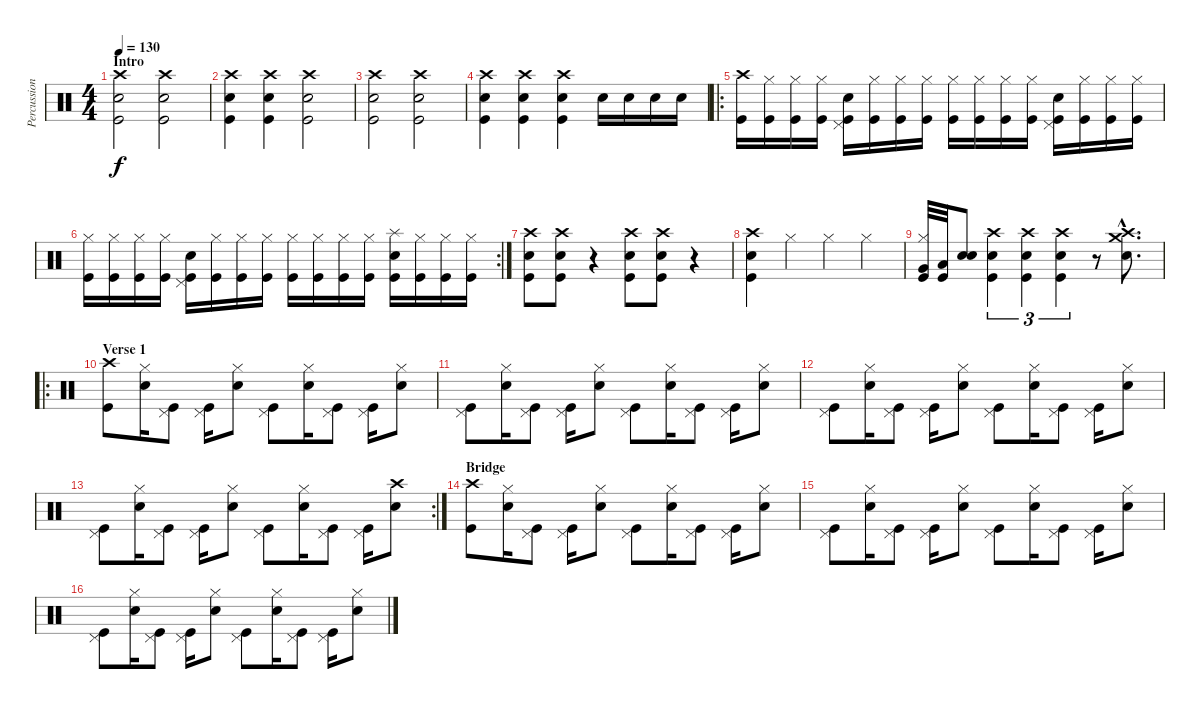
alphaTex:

\track ("Percussion" "Percussion") {instrument percussion}
\staff {score}
\articulation defaults
\ts (4 4)
\section ("" "Intro")
\tempo 130
\clef neutral
\ks c
("Crash high (hit)" "Snare (hit) 2" "Kick (hit)").2{dy f} ("Crash high (hit)" "Snare (hit) 2" "Kick (hit)").2 |
("Crash high (hit)" "Snare (hit) 2" "Kick (hit)").4 ("Crash high (hit)" "Snare (hit) 2" "Kick (hit)").4 ("Crash high (hit)" "Snare (hit) 2" "Kick (hit)").2 |
("Crash high (hit)" "Snare (hit) 2" "Kick (hit)").2 ("Crash high (hit)" "Snare (hit) 2" "Kick (hit)").2 |
("Crash high (hit)" "Snare (hit) 2" "Kick (hit)").4 ("Crash high (hit)" "Snare (hit) 2" "Kick (hit)").4 ("Crash high (hit)" "Snare (hit) 2" "Kick (hit)").4 "Snare (hit) 2".16 "Snare (hit) 2".16 "Snare (hit) 2".16 "Snare (hit) 2".16 |
\ro
("Crash high (hit)" "Kick (hit)").16 ("Hi-Hat (closed)" "Kick (hit)").16 ("Hi-Hat (closed)" "Kick (hit)").16 ("Hi-Hat (closed)" "Kick (hit)").16 ("Pedal Hi-Hat (hit)" "Snare (hit) 2" "Kick (hit)").16 ("Hi-Hat (closed)" "Kick (hit)").16 ("Hi-Hat (closed)" "Kick (hit)").16 ("Hi-Hat (closed)" "Kick (hit)").16 ("Hi-Hat (closed)" "Kick (hit)").16 ("Hi-Hat (closed)" "Kick (hit)").16 ("Hi-Hat (closed)" "Kick (hit)").16 ("Hi-Hat (closed)" "Kick (hit)").16 ("Pedal Hi-Hat (hit)" "Snare (hit) 2" "Kick (hit)").16 ("Hi-Hat (closed)" "Kick (hit)").16 ("Hi-Hat (closed)" "Kick (hit)").16 ("Hi-Hat (closed)" "Kick (hit)").16 |
\rc 2
("Hi-Hat (closed)" "Kick (hit)").16 ("Hi-Hat (closed)" "Kick (hit)").16 ("Hi-Hat (closed)" "Kick (hit)").16 ("Hi-Hat (closed)" "Kick (hit)").16 ("Pedal Hi-Hat (hit)" "Snare (hit) 2" "Kick (hit)").16 ("Hi-Hat (closed)" "Kick (hit)").16 ("Hi-Hat (closed)" "Kick (hit)").16 ("Hi-Hat (closed)" "Kick (hit)").16 ("Hi-Hat (closed)" "Kick (hit)").16 ("Hi-Hat (closed)" "Kick (hit)").16 ("Hi-Hat (closed)" "Kick (hit)").16 ("Hi-Hat (closed)" "Kick (hit)").16 ("Splash (hit)" "Snare (hit) 2" "Kick (hit)").16 ("Hi-Hat (closed)" "Kick (hit)").16 ("Hi-Hat (closed)" "Kick (hit)").16 ("Hi-Hat (closed)" "Kick (hit)").16 |
("Crash high (hit)" "Snare (hit) 2" "Kick (hit)").8 ("Crash high (hit)" "Snare (hit) 2" "Kick (hit)").8 r.4 ("Crash high (hit)" "Snare (hit) 2" "Kick (hit)").8 ("Crash high (hit)" "Snare (hit) 2" "Kick (hit)").8 r.4 |
("Crash high (hit)" "Snare (hit) 2" "Kick (hit)").4 "Hi-Hat (closed)".4 "Hi-Hat (closed)".4 "Hi-Hat (closed)".4 |
("Hi-Hat (closed)" "Very Low Tom (hit)" "Kick (hit)").32 ("Low Floor Tom (hit)" "Kick (hit)").32 ("Snare (hit) 2" "Snare (hit) 2").8 ("Crash high (hit)" "Snare (hit) 2" "Kick (hit)").4{tu (3 2)} ("Crash high (hit)" "Snare (hit) 2" "Kick (hit)").4{tu (3 2)} ("Crash high (hit)" "Snare (hit) 2" "Kick (hit)").4{tu (3 2)} r.8 ("Crash medium (hit)"{hac} "Crash high (hit)"{hac} "Snare (hit) 2"{hac}).8{d} |
\ro
\section ("" "Verse 1")
("Crash high (hit)" "Kick (hit)").8 ("Hi-Hat (closed)" "Snare (hit) 2").16 ("Pedal Hi-Hat (hit)" "Kick (hit)").8 ("Pedal Hi-Hat (hit)" "Kick (hit)").16 ("Hi-Hat (closed)" "Snare (hit) 2").8 ("Pedal Hi-Hat (hit)" "Kick (hit)").8 ("Hi-Hat (closed)" "Snare (hit) 2").16 ("Pedal Hi-Hat (hit)" "Kick (hit)").8 ("Pedal Hi-Hat (hit)" "Kick (hit)").16 ("Hi-Hat (closed)" "Snare (hit) 2").8 |
("Pedal Hi-Hat (hit)" "Kick (hit)").8 ("Hi-Hat (closed)" "Snare (hit) 2").16 ("Pedal Hi-Hat (hit)" "Kick (hit)").8 ("Pedal Hi-Hat (hit)" "Kick (hit)").16 ("Hi-Hat (closed)" "Snare (hit) 2").8 ("Pedal Hi-Hat (hit)" "Kick (hit)").8 ("Hi-Hat (closed)" "Snare (hit) 2").16 ("Pedal Hi-Hat (hit)" "Kick (hit)").8 ("Pedal Hi-Hat (hit)" "Kick (hit)").16 ("Hi-Hat (closed)" "Snare (hit) 2").8 |
("Pedal Hi-Hat (hit)" "Kick (hit)").8 ("Hi-Hat (closed)" "Snare (hit) 2").16 ("Pedal Hi-Hat (hit)" "Kick (hit)").8 ("Pedal Hi-Hat (hit)" "Kick (hit)").16 ("Hi-Hat (closed)" "Snare (hit) 2").8 ("Pedal Hi-Hat (hit)" "Kick (hit)").8 ("Hi-Hat (closed)" "Snare (hit) 2").16 ("Pedal Hi-Hat (hit)" "Kick (hit)").8 ("Pedal Hi-Hat (hit)" "Kick (hit)").16 ("Hi-Hat (closed)" "Snare (hit) 2").8 |
\rc 2
("Pedal Hi-Hat (hit)" "Kick (hit)").8 ("Hi-Hat (closed)" "Snare (hit) 2").16 ("Pedal Hi-Hat (hit)" "Kick (hit)").8 ("Pedal Hi-Hat (hit)" "Kick (hit)").16 ("Hi-Hat (closed)" "Snare (hit) 2").8 ("Pedal Hi-Hat (hit)" "Kick (hit)").8 ("Hi-Hat (closed)" "Snare (hit) 2").16 ("Pedal Hi-Hat (hit)" "Kick (hit)").8 ("Pedal Hi-Hat (hit)" "Kick (hit)").16 ("Crash high (hit)" "Snare (hit) 2").8 |
\section ("" "Bridge")
("Crash high (hit)" "Kick (hit)").8 ("Hi-Hat (closed)" "Snare (hit) 2").16 ("Pedal Hi-Hat (hit)" "Kick (hit)").8 ("Pedal Hi-Hat (hit)" "Kick (hit)").16 ("Hi-Hat (closed)" "Snare (hit) 2").8 ("Pedal Hi-Hat (hit)" "Kick (hit)").8 ("Hi-Hat (closed)" "Snare (hit) 2").16 ("Pedal Hi-Hat (hit)" "Kick (hit)").8 ("Pedal Hi-Hat (hit)" "Kick (hit)").16 ("Hi-Hat (closed)" "Snare (hit) 2").8 |
("Pedal Hi-Hat (hit)" "Kick (hit)").8 ("Hi-Hat (closed)" "Snare (hit) 2").16 ("Pedal Hi-Hat (hit)" "Kick (hit)").8 ("Pedal Hi-Hat (hit)" "Kick (hit)").16 ("Hi-Hat (closed)" "Snare (hit) 2").8 ("Pedal Hi-Hat (hit)" "Kick (hit)").8 ("Hi-Hat (closed)" "Snare (hit) 2").16 ("Pedal Hi-Hat (hit)" "Kick (hit)").8 ("Pedal Hi-Hat (hit)" "Kick (hit)").16 ("Hi-Hat (closed)" "Snare (hit) 2").8 |
("Pedal Hi-Hat (hit)" "Kick (hit)").8 ("Hi-Hat (closed)" "Snare (hit) 2").16 ("Pedal Hi-Hat (hit)" "Kick (hit)").8 ("Pedal Hi-Hat (hit)" "Kick (hit)").16 ("Hi-Hat (closed)" "Snare (hit) 2").8 ("Pedal Hi-Hat (hit)" "Kick (hit)").8 ("Hi-Hat (closed)" "Snare (hit) 2").16 ("Pedal Hi-Hat (hit)" "Kick (hit)").8 ("Pedal Hi-Hat (hit)" "Kick (hit)").16 ("Hi-Hat (closed)" "Snare (hit) 2").8
